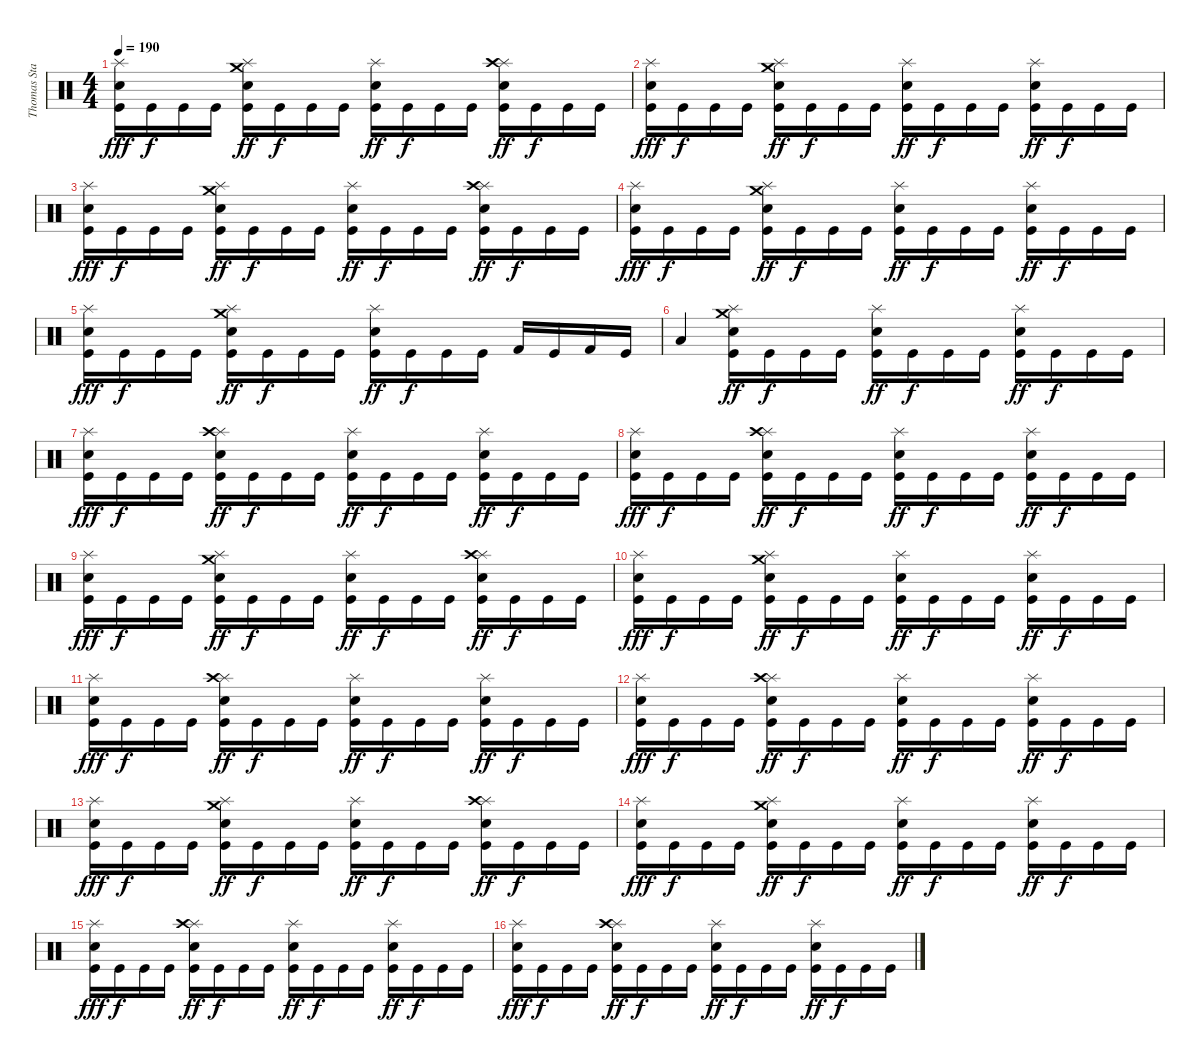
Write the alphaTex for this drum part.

\track ("Thomas Stauch" "Thomas Sta") {instrument percussion}
\staff {score}
\articulation defaults
\ts (4 4)
\tempo 190
\clef neutral
\ks c
("Splash (hit)" "Electric Snare (hit)" "Kick (hit)").16{dy fff} "Kick (hit)".16{dy f} "Kick (hit)".16 "Kick (hit)".16 ("Splash (hit)" "Crash medium (hit)" "Electric Snare (hit)" "Kick (hit)").16{dy ff} "Kick (hit)".16{dy f} "Kick (hit)".16 "Kick (hit)".16 ("Splash (hit)" "Electric Snare (hit)" "Kick (hit)").16{dy ff} "Kick (hit)".16{dy f} "Kick (hit)".16 "Kick (hit)".16 ("Splash (hit)" "Crash high (hit)" "Electric Snare (hit)" "Kick (hit)").16{dy ff} "Kick (hit)".16{dy f} "Kick (hit)".16 "Kick (hit)".16 |
("Splash (hit)" "Electric Snare (hit)" "Kick (hit)").16{dy fff} "Kick (hit)".16{dy f} "Kick (hit)".16 "Kick (hit)".16 ("Splash (hit)" "Crash medium (hit)" "Electric Snare (hit)" "Kick (hit)").16{dy ff} "Kick (hit)".16{dy f} "Kick (hit)".16 "Kick (hit)".16 ("Splash (hit)" "Electric Snare (hit)" "Kick (hit)").16{dy ff} "Kick (hit)".16{dy f} "Kick (hit)".16 "Kick (hit)".16 ("Splash (hit)" "Electric Snare (hit)" "Kick (hit)").16{dy ff} "Kick (hit)".16{dy f} "Kick (hit)".16 "Kick (hit)".16 |
("Splash (hit)" "Electric Snare (hit)" "Kick (hit)").16{dy fff} "Kick (hit)".16{dy f} "Kick (hit)".16 "Kick (hit)".16 ("Splash (hit)" "Crash medium (hit)" "Electric Snare (hit)" "Kick (hit)").16{dy ff} "Kick (hit)".16{dy f} "Kick (hit)".16 "Kick (hit)".16 ("Splash (hit)" "Electric Snare (hit)" "Kick (hit)").16{dy ff} "Kick (hit)".16{dy f} "Kick (hit)".16 "Kick (hit)".16 ("Splash (hit)" "Crash high (hit)" "Electric Snare (hit)" "Kick (hit)").16{dy ff} "Kick (hit)".16{dy f} "Kick (hit)".16 "Kick (hit)".16 |
("Splash (hit)" "Electric Snare (hit)" "Kick (hit)").16{dy fff} "Kick (hit)".16{dy f} "Kick (hit)".16 "Kick (hit)".16 ("Splash (hit)" "Crash medium (hit)" "Electric Snare (hit)" "Kick (hit)").16{dy ff} "Kick (hit)".16{dy f} "Kick (hit)".16 "Kick (hit)".16 ("Splash (hit)" "Electric Snare (hit)" "Kick (hit)").16{dy ff} "Kick (hit)".16{dy f} "Kick (hit)".16 "Kick (hit)".16 ("Splash (hit)" "Electric Snare (hit)" "Kick (hit)").16{dy ff} "Kick (hit)".16{dy f} "Kick (hit)".16 "Kick (hit)".16 |
("Splash (hit)" "Electric Snare (hit)" "Kick (hit)").16{dy fff} "Kick (hit)".16{dy f} "Kick (hit)".16 "Kick (hit)".16 ("Splash (hit)" "Crash medium (hit)" "Electric Snare (hit)" "Kick (hit)").16{dy ff} "Kick (hit)".16{dy f} "Kick (hit)".16 "Kick (hit)".16 ("Splash (hit)" "Electric Snare (hit)" "Kick (hit)").16{dy ff} "Kick (hit)".16{dy f} "Kick (hit)".16 "Kick (hit)".16 "Kick (hit) 2".16 "Kick (hit)".16 "Kick (hit) 2".16 "Kick (hit)".16 |
"Low Tom (hit)".4 ("Splash (hit)" "Crash medium (hit)" "Electric Snare (hit)" "Kick (hit)").16{dy ff} "Kick (hit)".16{dy f} "Kick (hit)".16 "Kick (hit)".16 ("Splash (hit)" "Electric Snare (hit)" "Kick (hit)").16{dy ff} "Kick (hit)".16{dy f} "Kick (hit)".16 "Kick (hit)".16 ("Splash (hit)" "Electric Snare (hit)" "Kick (hit)").16{dy ff} "Kick (hit)".16{dy f} "Kick (hit)".16 "Kick (hit)".16 |
("Splash (hit)" "Electric Snare (hit)" "Kick (hit)").16{dy fff} "Kick (hit)".16{dy f} "Kick (hit)".16 "Kick (hit)".16 ("Splash (hit)" "Crash high (hit)" "Electric Snare (hit)" "Kick (hit)").16{dy ff} "Kick (hit)".16{dy f} "Kick (hit)".16 "Kick (hit)".16 ("Splash (hit)" "Electric Snare (hit)" "Kick (hit)").16{dy ff} "Kick (hit)".16{dy f} "Kick (hit)".16 "Kick (hit)".16 ("Splash (hit)" "Electric Snare (hit)" "Kick (hit)").16{dy ff} "Kick (hit)".16{dy f} "Kick (hit)".16 "Kick (hit)".16 |
("Splash (hit)" "Electric Snare (hit)" "Kick (hit)").16{dy fff} "Kick (hit)".16{dy f} "Kick (hit)".16 "Kick (hit)".16 ("Splash (hit)" "Crash high (hit)" "Electric Snare (hit)" "Kick (hit)").16{dy ff} "Kick (hit)".16{dy f} "Kick (hit)".16 "Kick (hit)".16 ("Splash (hit)" "Electric Snare (hit)" "Kick (hit)").16{dy ff} "Kick (hit)".16{dy f} "Kick (hit)".16 "Kick (hit)".16 ("Splash (hit)" "Electric Snare (hit)" "Kick (hit)").16{dy ff} "Kick (hit)".16{dy f} "Kick (hit)".16 "Kick (hit)".16 |
("Splash (hit)" "Electric Snare (hit)" "Kick (hit)").16{dy fff} "Kick (hit)".16{dy f} "Kick (hit)".16 "Kick (hit)".16 ("Splash (hit)" "Crash medium (hit)" "Electric Snare (hit)" "Kick (hit)").16{dy ff} "Kick (hit)".16{dy f} "Kick (hit)".16 "Kick (hit)".16 ("Splash (hit)" "Electric Snare (hit)" "Kick (hit)").16{dy ff} "Kick (hit)".16{dy f} "Kick (hit)".16 "Kick (hit)".16 ("Splash (hit)" "Crash high (hit)" "Electric Snare (hit)" "Kick (hit)").16{dy ff} "Kick (hit)".16{dy f} "Kick (hit)".16 "Kick (hit)".16 |
("Splash (hit)" "Electric Snare (hit)" "Kick (hit)").16{dy fff} "Kick (hit)".16{dy f} "Kick (hit)".16 "Kick (hit)".16 ("Splash (hit)" "Crash medium (hit)" "Electric Snare (hit)" "Kick (hit)").16{dy ff} "Kick (hit)".16{dy f} "Kick (hit)".16 "Kick (hit)".16 ("Splash (hit)" "Electric Snare (hit)" "Kick (hit)").16{dy ff} "Kick (hit)".16{dy f} "Kick (hit)".16 "Kick (hit)".16 ("Splash (hit)" "Electric Snare (hit)" "Kick (hit)").16{dy ff} "Kick (hit)".16{dy f} "Kick (hit)".16 "Kick (hit)".16 |
("Splash (hit)" "Electric Snare (hit)" "Kick (hit)").16{dy fff} "Kick (hit)".16{dy f} "Kick (hit)".16 "Kick (hit)".16 ("Splash (hit)" "Crash high (hit)" "Electric Snare (hit)" "Kick (hit)").16{dy ff} "Kick (hit)".16{dy f} "Kick (hit)".16 "Kick (hit)".16 ("Splash (hit)" "Electric Snare (hit)" "Kick (hit)").16{dy ff} "Kick (hit)".16{dy f} "Kick (hit)".16 "Kick (hit)".16 ("Splash (hit)" "Electric Snare (hit)" "Kick (hit)").16{dy ff} "Kick (hit)".16{dy f} "Kick (hit)".16 "Kick (hit)".16 |
("Splash (hit)" "Electric Snare (hit)" "Kick (hit)").16{dy fff} "Kick (hit)".16{dy f} "Kick (hit)".16 "Kick (hit)".16 ("Splash (hit)" "Crash high (hit)" "Electric Snare (hit)" "Kick (hit)").16{dy ff} "Kick (hit)".16{dy f} "Kick (hit)".16 "Kick (hit)".16 ("Splash (hit)" "Electric Snare (hit)" "Kick (hit)").16{dy ff} "Kick (hit)".16{dy f} "Kick (hit)".16 "Kick (hit)".16 ("Splash (hit)" "Electric Snare (hit)" "Kick (hit)").16{dy ff} "Kick (hit)".16{dy f} "Kick (hit)".16 "Kick (hit)".16 |
("Splash (hit)" "Electric Snare (hit)" "Kick (hit)").16{dy fff} "Kick (hit)".16{dy f} "Kick (hit)".16 "Kick (hit)".16 ("Splash (hit)" "Crash medium (hit)" "Electric Snare (hit)" "Kick (hit)").16{dy ff} "Kick (hit)".16{dy f} "Kick (hit)".16 "Kick (hit)".16 ("Splash (hit)" "Electric Snare (hit)" "Kick (hit)").16{dy ff} "Kick (hit)".16{dy f} "Kick (hit)".16 "Kick (hit)".16 ("Splash (hit)" "Crash high (hit)" "Electric Snare (hit)" "Kick (hit)").16{dy ff} "Kick (hit)".16{dy f} "Kick (hit)".16 "Kick (hit)".16 |
("Splash (hit)" "Electric Snare (hit)" "Kick (hit)").16{dy fff} "Kick (hit)".16{dy f} "Kick (hit)".16 "Kick (hit)".16 ("Splash (hit)" "Crash medium (hit)" "Electric Snare (hit)" "Kick (hit)").16{dy ff} "Kick (hit)".16{dy f} "Kick (hit)".16 "Kick (hit)".16 ("Splash (hit)" "Electric Snare (hit)" "Kick (hit)").16{dy ff} "Kick (hit)".16{dy f} "Kick (hit)".16 "Kick (hit)".16 ("Splash (hit)" "Electric Snare (hit)" "Kick (hit)").16{dy ff} "Kick (hit)".16{dy f} "Kick (hit)".16 "Kick (hit)".16 |
("Splash (hit)" "Electric Snare (hit)" "Kick (hit)").16{dy fff} "Kick (hit)".16{dy f} "Kick (hit)".16 "Kick (hit)".16 ("Splash (hit)" "Crash high (hit)" "Electric Snare (hit)" "Kick (hit)").16{dy ff} "Kick (hit)".16{dy f} "Kick (hit)".16 "Kick (hit)".16 ("Splash (hit)" "Electric Snare (hit)" "Kick (hit)").16{dy ff} "Kick (hit)".16{dy f} "Kick (hit)".16 "Kick (hit)".16 ("Splash (hit)" "Electric Snare (hit)" "Kick (hit)").16{dy ff} "Kick (hit)".16{dy f} "Kick (hit)".16 "Kick (hit)".16 |
("Splash (hit)" "Electric Snare (hit)" "Kick (hit)").16{dy fff} "Kick (hit)".16{dy f} "Kick (hit)".16 "Kick (hit)".16 ("Splash (hit)" "Crash high (hit)" "Electric Snare (hit)" "Kick (hit)").16{dy ff} "Kick (hit)".16{dy f} "Kick (hit)".16 "Kick (hit)".16 ("Splash (hit)" "Electric Snare (hit)" "Kick (hit)").16{dy ff} "Kick (hit)".16{dy f} "Kick (hit)".16 "Kick (hit)".16 ("Splash (hit)" "Electric Snare (hit)" "Kick (hit)").16{dy ff} "Kick (hit)".16{dy f} "Kick (hit)".16 "Kick (hit)".16
